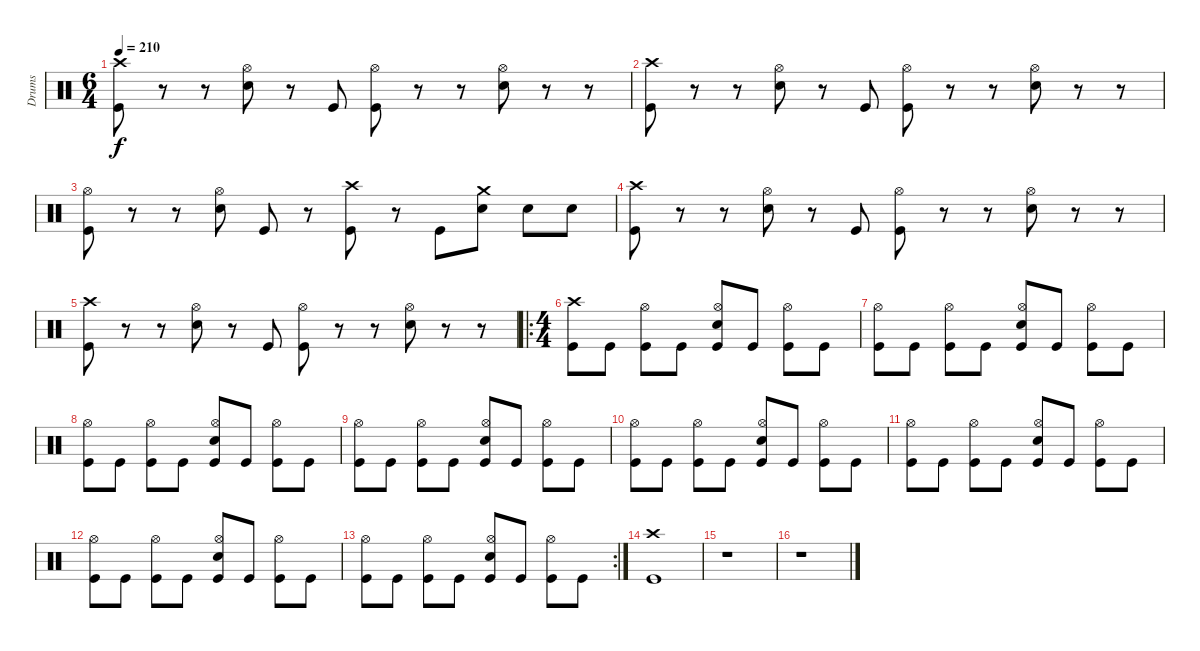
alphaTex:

\track ("Drums" "Drums") {instrument percussion}
\staff {score}
\articulation defaults
\ts (6 4)
\tempo 210
\clef neutral
\ks c
("Crash high (hit)" "Kick (hit)").8{dy f} r.8 r.8 ("Hi-Hat (open)" "Snare (hit) 2").8 r.8 "Kick (hit)".8 ("Hi-Hat (open)" "Kick (hit)").8 r.8 r.8 ("Hi-Hat (open)" "Snare (hit) 2").8 r.8 r.8 |
("Crash high (hit)" "Kick (hit)").8 r.8 r.8 ("Hi-Hat (open)" "Snare (hit) 2").8 r.8 "Kick (hit)".8 ("Hi-Hat (open)" "Kick (hit)").8 r.8 r.8 ("Hi-Hat (open)" "Snare (hit) 2").8 r.8 r.8 |
("Hi-Hat (open)" "Kick (hit)").8 r.8 r.8 ("Hi-Hat (open)" "Snare (hit) 2").8 "Kick (hit)".8 r.8 ("Crash high (hit)" "Kick (hit)").8 r.8 "Kick (hit)".8 ("Crash medium (hit)" "Snare (hit) 2").8 "Snare (hit) 2".8 "Snare (hit) 2".8 |
("Crash high (hit)" "Kick (hit)").8 r.8 r.8 ("Hi-Hat (open)" "Snare (hit) 2").8 r.8 "Kick (hit)".8 ("Hi-Hat (open)" "Kick (hit)").8 r.8 r.8 ("Hi-Hat (open)" "Snare (hit) 2").8 r.8 r.8 |
("Crash high (hit)" "Kick (hit)").8 r.8 r.8 ("Hi-Hat (open)" "Snare (hit) 2").8 r.8 "Kick (hit)".8 ("Hi-Hat (open)" "Kick (hit)").8 r.8 r.8 ("Hi-Hat (open)" "Snare (hit) 2").8 r.8 r.8 |
\ro
\ts (4 4)
("Crash high (hit)" "Kick (hit)").8 "Kick (hit)".8 ("Hi-Hat (open)" "Kick (hit)").8 "Kick (hit)".8 ("Hi-Hat (open)" "Snare (hit) 2" "Kick (hit)").8 "Kick (hit)".8 ("Hi-Hat (open)" "Kick (hit)").8 "Kick (hit)".8 |
("Hi-Hat (open)" "Kick (hit)").8 "Kick (hit)".8 ("Hi-Hat (open)" "Kick (hit)").8 "Kick (hit)".8 ("Hi-Hat (open)" "Snare (hit) 2" "Kick (hit)").8 "Kick (hit)".8 ("Hi-Hat (open)" "Kick (hit)").8 "Kick (hit)".8 |
("Hi-Hat (open)" "Kick (hit)").8 "Kick (hit)".8 ("Hi-Hat (open)" "Kick (hit)").8 "Kick (hit)".8 ("Hi-Hat (open)" "Snare (hit) 2" "Kick (hit)").8 "Kick (hit)".8 ("Hi-Hat (open)" "Kick (hit)").8 "Kick (hit)".8 |
("Hi-Hat (open)" "Kick (hit)").8 "Kick (hit)".8 ("Hi-Hat (open)" "Kick (hit)").8 "Kick (hit)".8 ("Hi-Hat (open)" "Snare (hit) 2" "Kick (hit)").8 "Kick (hit)".8 ("Hi-Hat (open)" "Kick (hit)").8 "Kick (hit)".8 |
("Hi-Hat (open)" "Kick (hit)").8 "Kick (hit)".8 ("Hi-Hat (open)" "Kick (hit)").8 "Kick (hit)".8 ("Hi-Hat (open)" "Snare (hit) 2" "Kick (hit)").8 "Kick (hit)".8 ("Hi-Hat (open)" "Kick (hit)").8 "Kick (hit)".8 |
("Hi-Hat (open)" "Kick (hit)").8 "Kick (hit)".8 ("Hi-Hat (open)" "Kick (hit)").8 "Kick (hit)".8 ("Hi-Hat (open)" "Snare (hit) 2" "Kick (hit)").8 "Kick (hit)".8 ("Hi-Hat (open)" "Kick (hit)").8 "Kick (hit)".8 |
("Hi-Hat (open)" "Kick (hit)").8 "Kick (hit)".8 ("Hi-Hat (open)" "Kick (hit)").8 "Kick (hit)".8 ("Hi-Hat (open)" "Snare (hit) 2" "Kick (hit)").8 "Kick (hit)".8 ("Hi-Hat (open)" "Kick (hit)").8 "Kick (hit)".8 |
\rc 2
("Hi-Hat (open)" "Kick (hit)").8 "Kick (hit)".8 ("Hi-Hat (open)" "Kick (hit)").8 "Kick (hit)".8 ("Hi-Hat (open)" "Snare (hit) 2" "Kick (hit)").8 "Kick (hit)".8 ("Hi-Hat (open)" "Kick (hit)").8 "Kick (hit)".8 |
("Crash high (hit)" "Kick (hit)").1 |
r.1 |
r.1
